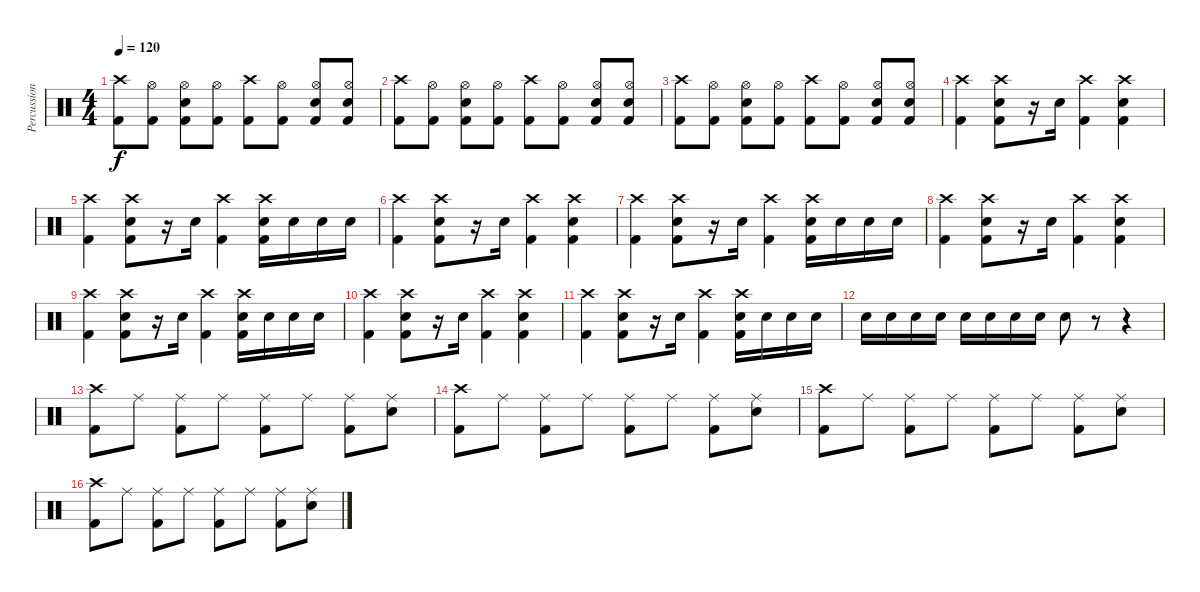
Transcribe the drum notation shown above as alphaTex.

\track ("Percussion" "Percussion") {instrument percussion}
\staff {score}
\articulation defaults
\ts (4 4)
\tempo 120
\clef neutral
\ks c
("Crash high (hit)" "Kick (hit) 2").8{dy f} ("Hi-Hat (open)" "Kick (hit) 2").8 ("Hi-Hat (open)" "Electric Snare (hit)" "Kick (hit) 2").8 ("Hi-Hat (open)" "Kick (hit) 2").8 ("Crash high (hit)" "Kick (hit) 2").8 ("Hi-Hat (open)" "Kick (hit) 2").8 ("Hi-Hat (open)" "Electric Snare (hit)" "Kick (hit) 2").8 ("Hi-Hat (open)" "Electric Snare (hit)" "Kick (hit) 2").8 |
("Crash high (hit)" "Kick (hit) 2").8 ("Hi-Hat (open)" "Kick (hit) 2").8 ("Hi-Hat (open)" "Electric Snare (hit)" "Kick (hit) 2").8 ("Hi-Hat (open)" "Kick (hit) 2").8 ("Crash high (hit)" "Kick (hit) 2").8 ("Hi-Hat (open)" "Kick (hit) 2").8 ("Hi-Hat (open)" "Electric Snare (hit)" "Kick (hit) 2").8 ("Hi-Hat (open)" "Electric Snare (hit)" "Kick (hit) 2").8 |
("Crash high (hit)" "Kick (hit) 2").8 ("Hi-Hat (open)" "Kick (hit) 2").8 ("Hi-Hat (open)" "Electric Snare (hit)" "Kick (hit) 2").8 ("Hi-Hat (open)" "Kick (hit) 2").8 ("Crash high (hit)" "Kick (hit) 2").8 ("Hi-Hat (open)" "Kick (hit) 2").8 ("Hi-Hat (open)" "Electric Snare (hit)" "Kick (hit) 2").8 ("Hi-Hat (open)" "Electric Snare (hit)" "Kick (hit) 2").8 |
("Crash high (hit)" "Kick (hit) 2").4 ("Crash high (hit)" "Electric Snare (hit)" "Kick (hit) 2").8 r.16 "Electric Snare (hit)".16 ("Crash high (hit)" "Kick (hit) 2").4 ("Crash high (hit)" "Electric Snare (hit)" "Kick (hit) 2").4 |
("Crash high (hit)" "Kick (hit) 2").4 ("Crash high (hit)" "Electric Snare (hit)" "Kick (hit) 2").8 r.16 "Electric Snare (hit)".16 ("Crash high (hit)" "Kick (hit) 2").4 ("Crash high (hit)" "Electric Snare (hit)" "Kick (hit) 2").16 "Electric Snare (hit)".16 "Electric Snare (hit)".16 "Electric Snare (hit)".16 |
("Crash high (hit)" "Kick (hit) 2").4 ("Crash high (hit)" "Electric Snare (hit)" "Kick (hit) 2").8 r.16 "Electric Snare (hit)".16 ("Crash high (hit)" "Kick (hit) 2").4 ("Crash high (hit)" "Electric Snare (hit)" "Kick (hit) 2").4 |
("Crash high (hit)" "Kick (hit) 2").4 ("Crash high (hit)" "Electric Snare (hit)" "Kick (hit) 2").8 r.16 "Electric Snare (hit)".16 ("Crash high (hit)" "Kick (hit) 2").4 ("Crash high (hit)" "Electric Snare (hit)" "Kick (hit) 2").16 "Electric Snare (hit)".16 "Electric Snare (hit)".16 "Electric Snare (hit)".16 |
("Crash high (hit)" "Kick (hit) 2").4 ("Crash high (hit)" "Electric Snare (hit)" "Kick (hit) 2").8 r.16 "Electric Snare (hit)".16 ("Crash high (hit)" "Kick (hit) 2").4 ("Crash high (hit)" "Electric Snare (hit)" "Kick (hit) 2").4 |
("Crash high (hit)" "Kick (hit) 2").4 ("Crash high (hit)" "Electric Snare (hit)" "Kick (hit) 2").8 r.16 "Electric Snare (hit)".16 ("Crash high (hit)" "Kick (hit) 2").4 ("Crash high (hit)" "Electric Snare (hit)" "Kick (hit) 2").16 "Electric Snare (hit)".16 "Electric Snare (hit)".16 "Electric Snare (hit)".16 |
("Crash high (hit)" "Kick (hit) 2").4 ("Crash high (hit)" "Electric Snare (hit)" "Kick (hit) 2").8 r.16 "Electric Snare (hit)".16 ("Crash high (hit)" "Kick (hit) 2").4 ("Crash high (hit)" "Electric Snare (hit)" "Kick (hit) 2").4 |
("Crash high (hit)" "Kick (hit) 2").4 ("Crash high (hit)" "Electric Snare (hit)" "Kick (hit) 2").8 r.16 "Electric Snare (hit)".16 ("Crash high (hit)" "Kick (hit) 2").4 ("Crash high (hit)" "Electric Snare (hit)" "Kick (hit) 2").16 "Electric Snare (hit)".16 "Electric Snare (hit)".16 "Electric Snare (hit)".16 |
"Electric Snare (hit)".16 "Electric Snare (hit)".16 "Electric Snare (hit)".16 "Electric Snare (hit)".16 "Electric Snare (hit)".16 "Electric Snare (hit)".16 "Electric Snare (hit)".16 "Electric Snare (hit)".16 "Electric Snare (hit)".8 r.8 r.4 |
("Crash high (hit)" "Kick (hit) 2").8 "Ride (middle)".8 ("Ride (middle)" "Kick (hit) 2").8 "Ride (middle)".8 ("Ride (middle)" "Kick (hit) 2").8 "Ride (middle)".8 ("Ride (middle)" "Kick (hit) 2").8 ("Ride (middle)" "Electric Snare (hit)").8 |
("Crash high (hit)" "Kick (hit) 2").8 "Ride (middle)".8 ("Ride (middle)" "Kick (hit) 2").8 "Ride (middle)".8 ("Ride (middle)" "Kick (hit) 2").8 "Ride (middle)".8 ("Ride (middle)" "Kick (hit) 2").8 ("Ride (middle)" "Electric Snare (hit)").8 |
("Crash high (hit)" "Kick (hit) 2").8 "Ride (middle)".8 ("Ride (middle)" "Kick (hit) 2").8 "Ride (middle)".8 ("Ride (middle)" "Kick (hit) 2").8 "Ride (middle)".8 ("Ride (middle)" "Kick (hit) 2").8 ("Ride (middle)" "Electric Snare (hit)").8 |
("Crash high (hit)" "Kick (hit) 2").8 "Ride (middle)".8 ("Ride (middle)" "Kick (hit) 2").8 "Ride (middle)".8 ("Ride (middle)" "Kick (hit) 2").8 "Ride (middle)".8 ("Ride (middle)" "Kick (hit) 2").8 ("Ride (middle)" "Electric Snare (hit)").8
